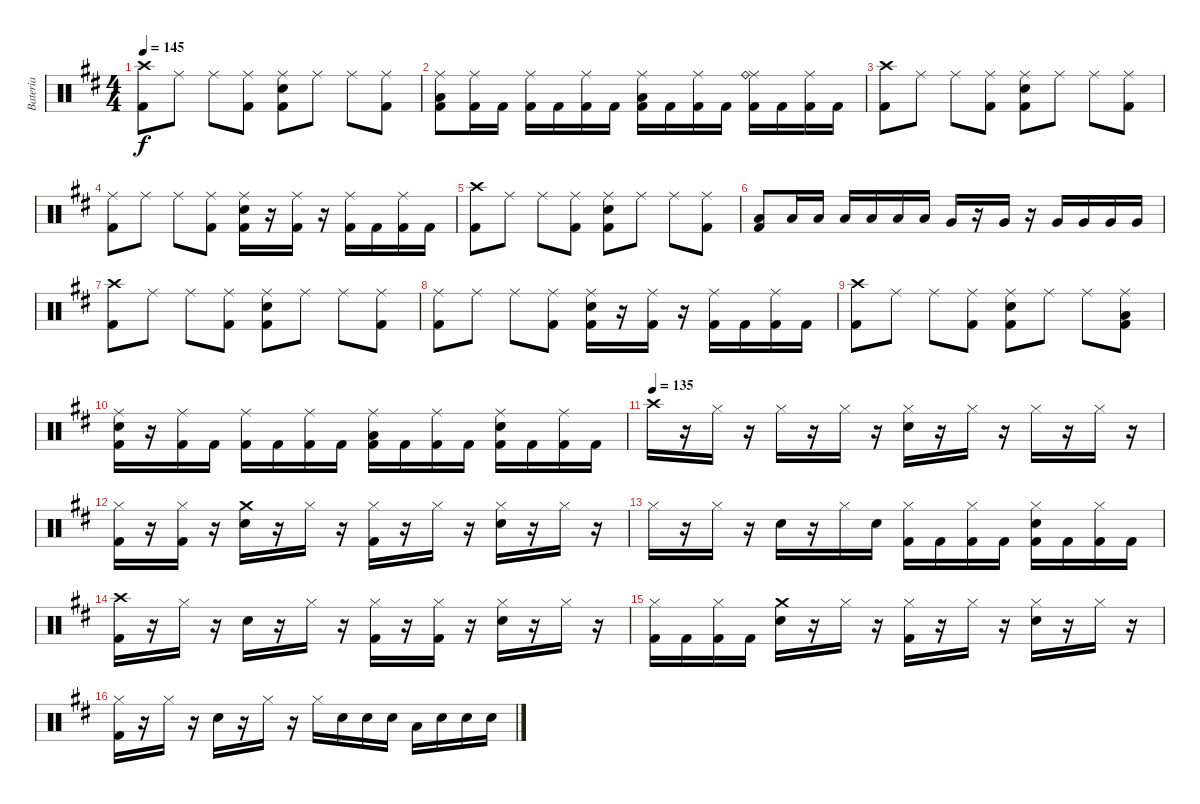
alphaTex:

\track ("Bateria" "Bateria") {instrument percussion}
\staff {score}
\articulation defaults
\ts (4 4)
\tempo 145
\clef neutral
\ks d
("Crash high (hit)" "Kick (hit) 2").8{dy f} "Ride (middle)".8 "Ride (middle)".8 ("Ride (middle)" "Kick (hit) 2").8 ("Ride (middle)" "Electric Snare (hit)" "Kick (hit) 2").8 "Ride (middle)".8 "Ride (middle)".8 ("Ride (middle)" "Kick (hit) 2").8 |
("Ride (middle)" "Low Tom (hit)" "Kick (hit) 2").8 ("Ride (middle)" "Kick (hit) 2").16 "Kick (hit) 2".16 ("Ride (middle)" "Kick (hit) 2").16 "Kick (hit) 2".16 ("Ride (middle)" "Kick (hit) 2").16 "Kick (hit) 2".16 ("Ride (middle)" "Low Tom (hit)" "Kick (hit) 2").16 "Kick (hit) 2".16 ("Ride (middle)" "Kick (hit) 2").16 "Kick (hit) 2".16 ("Ride (middle)" "Ride (bell)" "Kick (hit) 2").16 "Kick (hit) 2".16 ("Ride (middle)" "Kick (hit) 2").16 "Kick (hit) 2".16 |
("Crash high (hit)" "Kick (hit) 2").8 "Ride (middle)".8 "Ride (middle)".8 ("Ride (middle)" "Kick (hit) 2").8 ("Ride (middle)" "Electric Snare (hit)" "Kick (hit) 2").8 "Ride (middle)".8 "Ride (middle)".8 ("Ride (middle)" "Kick (hit) 2").8 |
("Ride (middle)" "Kick (hit) 2").8 "Ride (middle)".8 "Ride (middle)".8 ("Ride (middle)" "Kick (hit) 2").8 ("Ride (middle)" "Electric Snare (hit)" "Kick (hit) 2").16 r.16 ("Ride (middle)" "Kick (hit) 2").16 r.16 ("Ride (middle)" "Kick (hit) 2").16 "Kick (hit) 2".16 ("Ride (middle)" "Kick (hit) 2").16 "Kick (hit) 2".16 |
("Crash high (hit)" "Kick (hit) 2").8 "Ride (middle)".8 "Ride (middle)".8 ("Ride (middle)" "Kick (hit) 2").8 ("Ride (middle)" "Electric Snare (hit)" "Kick (hit) 2").8 "Ride (middle)".8 "Ride (middle)".8 ("Ride (middle)" "Kick (hit) 2").8 |
("Low Tom (hit)" "Kick (hit) 2").8 "Low Tom (hit)".16 "Low Tom (hit)".16 "Low Tom (hit)".16 "Low Tom (hit)".16 "Low Tom (hit)".16 "Low Tom (hit)".16 "Very Low Tom (hit)".16 r.16 "Very Low Tom (hit)".16 r.16 "Very Low Tom (hit)".16 "Very Low Tom (hit)".16 "Very Low Tom (hit)".16 "Very Low Tom (hit)".16 |
("Crash high (hit)" "Kick (hit) 2").8 "Ride (middle)".8 "Ride (middle)".8 ("Ride (middle)" "Kick (hit) 2").8 ("Ride (middle)" "Electric Snare (hit)" "Kick (hit) 2").8 "Ride (middle)".8 "Ride (middle)".8 ("Ride (middle)" "Kick (hit) 2").8 |
("Ride (middle)" "Kick (hit) 2").8 "Ride (middle)".8 "Ride (middle)".8 ("Ride (middle)" "Kick (hit) 2").8 ("Ride (middle)" "Electric Snare (hit)" "Kick (hit) 2").16 r.16 ("Ride (middle)" "Kick (hit) 2").16 r.16 ("Ride (middle)" "Kick (hit) 2").16 "Kick (hit) 2".16 ("Ride (middle)" "Kick (hit) 2").16 "Kick (hit) 2".16 |
("Crash high (hit)" "Kick (hit) 2").8 "Ride (middle)".8 "Ride (middle)".8 ("Ride (middle)" "Kick (hit) 2").8 ("Ride (middle)" "Electric Snare (hit)" "Kick (hit) 2").8 "Ride (middle)".8 "Ride (middle)".8 ("Ride (middle)" "Low Tom (hit)" "Kick (hit) 2").8 |
("Ride (middle)" "Electric Snare (hit)" "Kick (hit) 2").16 r.16 ("Ride (middle)" "Kick (hit) 2").16 "Kick (hit) 2".16 ("Ride (middle)" "Kick (hit) 2").16 "Kick (hit) 2".16 ("Ride (middle)" "Kick (hit) 2").16 "Kick (hit) 2".16 ("Ride (middle)" "Low Tom (hit)" "Kick (hit) 2").16 "Kick (hit) 2".16 ("Ride (middle)" "Kick (hit) 2").16 "Kick (hit) 2".16 ("Ride (middle)" "Electric Snare (hit)" "Kick (hit) 2").16 "Kick (hit) 2".16 ("Ride (middle)" "Kick (hit) 2").16 "Kick (hit) 2".16 |
\tempo (135)
"Crash high (hit)".16 r.16 "Hi-Hat (closed)".16 r.16 "Hi-Hat (closed)".16 r.16 "Hi-Hat (closed)".16 r.16 ("Hi-Hat (closed)" "Snare (hit) 2").16 r.16 "Hi-Hat (closed)".16 r.16 "Hi-Hat (closed)".16 r.16 "Hi-Hat (closed)".16 r.16 |
("Hi-Hat (closed)" "Kick (hit) 2").16 r.16 ("Hi-Hat (closed)" "Kick (hit) 2").16 r.16 ("Snare (hit) 2" "Crash medium (hit)").16 r.16 "Hi-Hat (closed)".16 r.16 ("Hi-Hat (closed)" "Kick (hit) 2").16 r.16 "Hi-Hat (closed)".16 r.16 ("Hi-Hat (closed)" "Snare (hit) 2").16 r.16 "Hi-Hat (closed)".16 r.16 |
"Hi-Hat (closed)".16 r.16 "Hi-Hat (closed)".16 r.16 "Snare (hit) 2".16 r.16 "Hi-Hat (closed)".16 "Snare (hit) 2".16 ("Hi-Hat (closed)" "Kick (hit) 2").16 "Kick (hit) 2".16 ("Hi-Hat (closed)" "Kick (hit) 2").16 "Kick (hit) 2".16 ("Hi-Hat (closed)" "Snare (hit) 2" "Kick (hit) 2").16 "Kick (hit) 2".16 ("Hi-Hat (closed)" "Kick (hit) 2").16 "Kick (hit) 2".16 |
("Crash high (hit)" "Kick (hit) 2").16 r.16 "Hi-Hat (closed)".16 r.16 "Snare (hit) 2".16 r.16 "Hi-Hat (closed)".16 r.16 ("Hi-Hat (closed)" "Kick (hit) 2").16 r.16 ("Hi-Hat (closed)" "Kick (hit) 2").16 r.16 ("Hi-Hat (closed)" "Snare (hit) 2").16 r.16 "Hi-Hat (closed)".16 r.16 |
("Hi-Hat (closed)" "Kick (hit) 2").16 "Kick (hit) 2".16 ("Hi-Hat (closed)" "Kick (hit) 2").16 "Kick (hit) 2".16 ("Snare (hit) 2" "Crash medium (hit)").16 r.16 "Hi-Hat (closed)".16 r.16 ("Hi-Hat (closed)" "Kick (hit) 2").16 r.16 "Hi-Hat (closed)".16 r.16 ("Hi-Hat (closed)" "Snare (hit) 2").16 r.16 "Hi-Hat (closed)".16 r.16 |
("Hi-Hat (closed)" "Kick (hit) 2").16 r.16 "Hi-Hat (closed)".16 r.16 "Snare (hit) 2".16 r.16 "Hi-Hat (closed)".16 r.16 "Hi-Hat (closed)".16 "Snare (hit) 2".16 "Snare (hit) 2".16 "Snare (hit) 2".16 "Low Tom (hit)".16 "Snare (hit) 2".16 "Snare (hit) 2".16 "Snare (hit) 2".16
